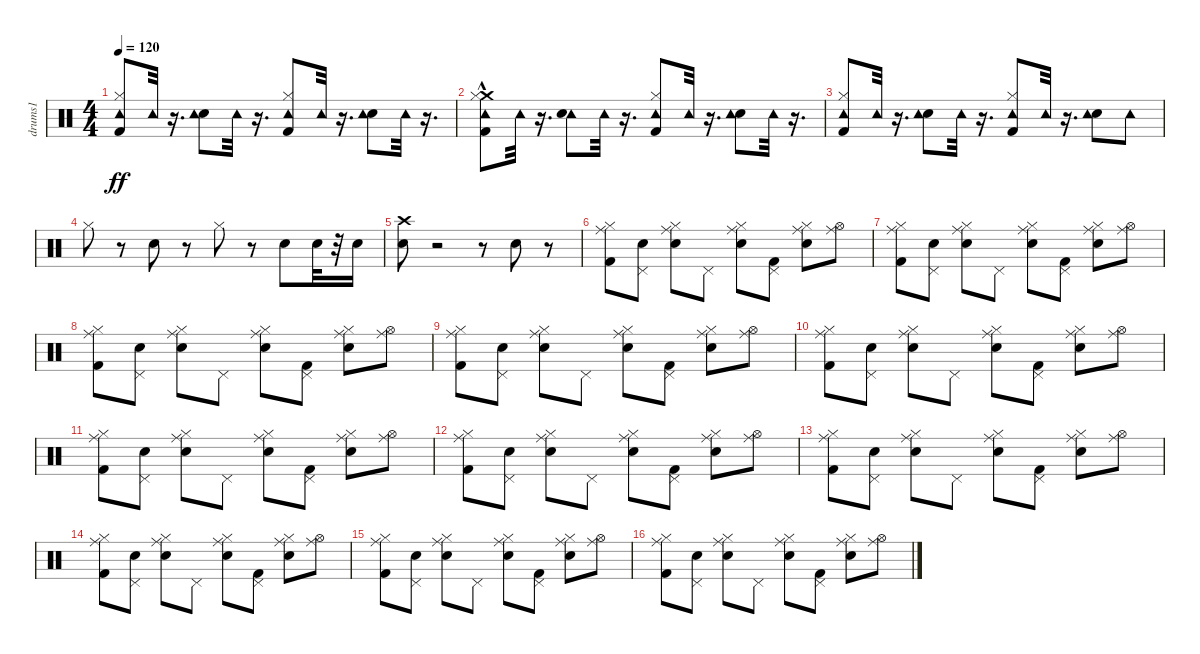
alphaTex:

\track ("drums1" "drums1") {instrument percussion}
\staff {score}
\articulation defaults
\ts (4 4)
\tempo 120
\clef neutral
\ks c
("Tambourine (hit)" "Hi-Hat (closed)" "Kick (hit) 2").8{dy ff} "Tambourine (hit)".32 r.16{d} ("Snare (hit) 2" "Tambourine (hit)").8 "Tambourine (hit)".32 r.16{d} ("Kick (hit) 2" "Tambourine (hit)" "Hi-Hat (closed)").8 "Tambourine (hit)".32 r.16{d} ("Snare (hit) 2" "Tambourine (hit)").8 "Tambourine (hit)".32 r.16{d} |
("Crash medium (hit)"{hac} "Kick (hit) 2" "Tambourine (hit)" "Hi-Hat (closed)").8 "Tambourine (hit)".32 r.16{d} ("Tambourine (hit)" "Snare (hit) 2").8 "Tambourine (hit)".32 r.16{d} ("Tambourine (hit)" "Hi-Hat (closed)" "Kick (hit) 2").8 "Tambourine (hit)".32 r.16{d} ("Snare (hit) 2" "Tambourine (hit)").8 "Tambourine (hit)".32 r.16{d} |
("Tambourine (hit)" "Hi-Hat (closed)" "Kick (hit) 2").8 "Tambourine (hit)".32 r.16{d} ("Snare (hit) 2" "Tambourine (hit)").8 "Tambourine (hit)".32 r.16{d} ("Kick (hit) 2" "Tambourine (hit)" "Hi-Hat (closed)").8 "Tambourine (hit)".32 r.16{d} ("Snare (hit) 2" "Tambourine (hit)").8 "Tambourine (hit)".8 |
"Hi-Hat (closed)".8 r.8 "Snare (hit) 2".8 r.8 "Hi-Hat (closed)".8 r.8 "Snare (hit) 2".8 "Snare (hit) 2".32 r.32 "Snare (hit) 2".16 |
("Crash high (hit)" "Snare (hit) 2").8 r.2 r.8 "Snare (hit) 2".8 r.8 |
("Kick (hit) 2" "Ride (middle)" "Hi-Hat (closed)").8 ("Pedal Hi-Hat (hit)" "Hand Clap (hit)").8 ("Snare (hit) 2" "Ride (middle)" "Hi-Hat (closed)").8 "Pedal Hi-Hat (hit)".8 ("Ride (middle)" "Hi-Hat (closed)" "Hand Clap (hit)").8 ("Kick (hit) 2" "Pedal Hi-Hat (hit)").8 ("Snare (hit) 2" "Ride (middle)" "Hi-Hat (closed)").8 ("Ride (middle)" "Hi-Hat (open)").8 |
("Kick (hit) 2" "Ride (middle)" "Hi-Hat (closed)").8 ("Pedal Hi-Hat (hit)" "Hand Clap (hit)").8 ("Snare (hit) 2" "Ride (middle)" "Hi-Hat (closed)").8 "Pedal Hi-Hat (hit)".8 ("Ride (middle)" "Hi-Hat (closed)" "Hand Clap (hit)").8 ("Kick (hit) 2" "Pedal Hi-Hat (hit)").8 ("Snare (hit) 2" "Ride (middle)" "Hi-Hat (closed)").8 ("Ride (middle)" "Hi-Hat (open)").8 |
("Kick (hit) 2" "Ride (middle)" "Hi-Hat (closed)").8 ("Pedal Hi-Hat (hit)" "Hand Clap (hit)").8 ("Snare (hit) 2" "Ride (middle)" "Hi-Hat (closed)").8 "Pedal Hi-Hat (hit)".8 ("Ride (middle)" "Hi-Hat (closed)" "Hand Clap (hit)").8 ("Kick (hit) 2" "Pedal Hi-Hat (hit)").8 ("Snare (hit) 2" "Ride (middle)" "Hi-Hat (closed)").8 ("Ride (middle)" "Hi-Hat (open)").8 |
("Ride (middle)" "Hi-Hat (closed)" "Kick (hit) 2").8 ("Pedal Hi-Hat (hit)" "Hand Clap (hit)").8 ("Ride (middle)" "Hi-Hat (closed)" "Snare (hit) 2").8 "Pedal Hi-Hat (hit)".8 ("Ride (middle)" "Hi-Hat (closed)" "Hand Clap (hit)").8 ("Kick (hit) 2" "Pedal Hi-Hat (hit)").8 ("Ride (middle)" "Hi-Hat (closed)" "Snare (hit) 2").8 ("Ride (middle)" "Hi-Hat (open)").8 |
("Ride (middle)" "Hi-Hat (closed)" "Kick (hit) 2").8 ("Pedal Hi-Hat (hit)" "Hand Clap (hit)").8 ("Ride (middle)" "Hi-Hat (closed)" "Snare (hit) 2").8 "Pedal Hi-Hat (hit)".8 ("Ride (middle)" "Hi-Hat (closed)" "Hand Clap (hit)").8 ("Kick (hit) 2" "Pedal Hi-Hat (hit)").8 ("Ride (middle)" "Hi-Hat (closed)" "Snare (hit) 2").8 ("Ride (middle)" "Hi-Hat (open)").8 |
("Ride (middle)" "Hi-Hat (closed)" "Kick (hit) 2").8 ("Pedal Hi-Hat (hit)" "Hand Clap (hit)").8 ("Ride (middle)" "Hi-Hat (closed)" "Snare (hit) 2").8 "Pedal Hi-Hat (hit)".8 ("Ride (middle)" "Hi-Hat (closed)" "Hand Clap (hit)").8 ("Kick (hit) 2" "Pedal Hi-Hat (hit)").8 ("Ride (middle)" "Hi-Hat (closed)" "Snare (hit) 2").8 ("Ride (middle)" "Hi-Hat (open)").8 |
("Ride (middle)" "Hi-Hat (closed)" "Kick (hit) 2").8 ("Pedal Hi-Hat (hit)" "Hand Clap (hit)").8 ("Ride (middle)" "Hi-Hat (closed)" "Snare (hit) 2").8 "Pedal Hi-Hat (hit)".8 ("Ride (middle)" "Hi-Hat (closed)" "Hand Clap (hit)").8 ("Kick (hit) 2" "Pedal Hi-Hat (hit)").8 ("Ride (middle)" "Hi-Hat (closed)" "Snare (hit) 2").8 ("Ride (middle)" "Hi-Hat (open)").8 |
("Ride (middle)" "Hi-Hat (closed)" "Kick (hit) 2").8 ("Pedal Hi-Hat (hit)" "Hand Clap (hit)").8 ("Ride (middle)" "Hi-Hat (closed)" "Snare (hit) 2").8 "Pedal Hi-Hat (hit)".8 ("Ride (middle)" "Hi-Hat (closed)" "Hand Clap (hit)").8 ("Kick (hit) 2" "Pedal Hi-Hat (hit)").8 ("Ride (middle)" "Hi-Hat (closed)" "Snare (hit) 2").8 ("Ride (middle)" "Hi-Hat (open)").8 |
("Ride (middle)" "Hi-Hat (closed)" "Kick (hit) 2").8 ("Pedal Hi-Hat (hit)" "Hand Clap (hit)").8 ("Ride (middle)" "Hi-Hat (closed)" "Snare (hit) 2").8 "Pedal Hi-Hat (hit)".8 ("Ride (middle)" "Hi-Hat (closed)" "Hand Clap (hit)").8 ("Kick (hit) 2" "Pedal Hi-Hat (hit)").8 ("Ride (middle)" "Hi-Hat (closed)" "Snare (hit) 2").8 ("Ride (middle)" "Hi-Hat (open)").8 |
("Ride (middle)" "Hi-Hat (closed)" "Kick (hit) 2").8 ("Pedal Hi-Hat (hit)" "Hand Clap (hit)").8 ("Ride (middle)" "Hi-Hat (closed)" "Snare (hit) 2").8 "Pedal Hi-Hat (hit)".8 ("Ride (middle)" "Hi-Hat (closed)" "Hand Clap (hit)").8 ("Kick (hit) 2" "Pedal Hi-Hat (hit)").8 ("Ride (middle)" "Hi-Hat (closed)" "Snare (hit) 2").8 ("Ride (middle)" "Hi-Hat (open)").8 |
("Ride (middle)" "Hi-Hat (closed)" "Kick (hit) 2").8 ("Pedal Hi-Hat (hit)" "Hand Clap (hit)").8 ("Ride (middle)" "Hi-Hat (closed)" "Snare (hit) 2").8 "Pedal Hi-Hat (hit)".8 ("Ride (middle)" "Hi-Hat (closed)" "Hand Clap (hit)").8 ("Kick (hit) 2" "Pedal Hi-Hat (hit)").8 ("Ride (middle)" "Hi-Hat (closed)" "Snare (hit) 2").8 ("Ride (middle)" "Hi-Hat (open)").8
